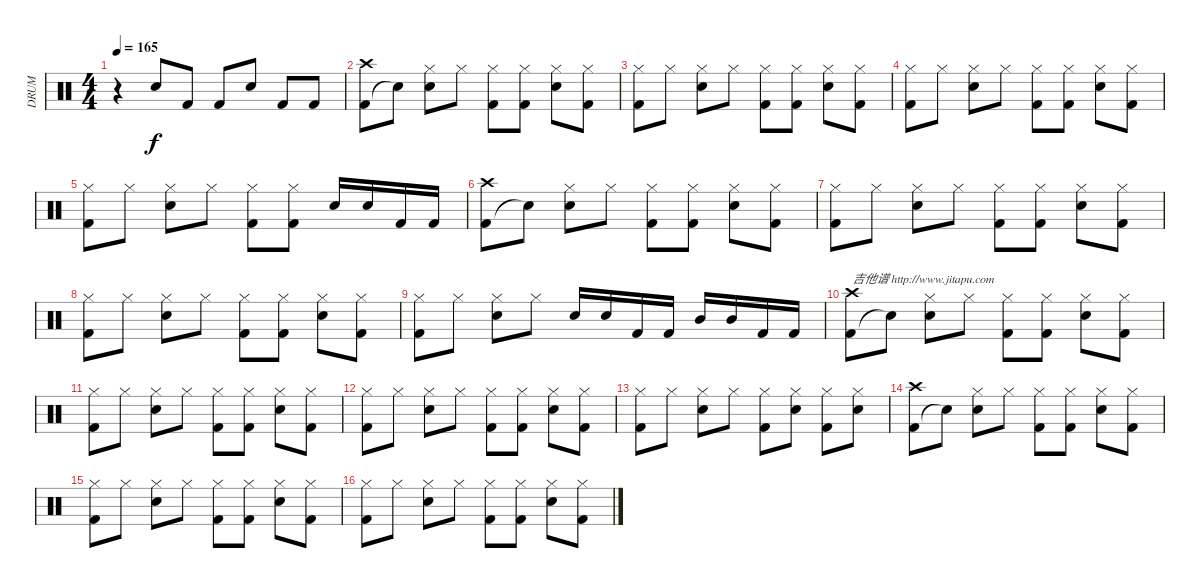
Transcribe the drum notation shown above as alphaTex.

\track ("DRUM" "DRUM") {instrument percussion}
\staff {score}
\articulation defaults
\ts (4 4)
\tempo 165
\clef neutral
\ks c
r.4{dy f} "Electric Snare (hit)".8 "Kick (hit) 2".8 "Kick (hit) 2".8 "Electric Snare (hit)".8 "Kick (hit) 2".8 "Kick (hit) 2".8 |
("Kick (hit) 2" "Crash high (hit)").8 "Snare (hit)"{t}.8 ("Electric Snare (hit)" "Hi-Hat (closed)").8 "Hi-Hat (closed)".8 ("Kick (hit) 2" "Hi-Hat (closed)").8 ("Kick (hit) 2" "Hi-Hat (closed)").8 ("Electric Snare (hit)" "Hi-Hat (closed)").8 ("Kick (hit) 2" "Hi-Hat (closed)").8 |
("Kick (hit) 2" "Hi-Hat (closed)").8 "Hi-Hat (closed)".8 ("Electric Snare (hit)" "Hi-Hat (closed)").8 "Hi-Hat (closed)".8 ("Kick (hit) 2" "Hi-Hat (closed)").8 ("Kick (hit) 2" "Hi-Hat (closed)").8 ("Electric Snare (hit)" "Hi-Hat (closed)").8 ("Kick (hit) 2" "Hi-Hat (closed)").8 |
("Kick (hit) 2" "Hi-Hat (closed)").8 "Hi-Hat (closed)".8 ("Electric Snare (hit)" "Hi-Hat (closed)").8 "Hi-Hat (closed)".8 ("Kick (hit) 2" "Hi-Hat (closed)").8 ("Kick (hit) 2" "Hi-Hat (closed)").8 ("Electric Snare (hit)" "Hi-Hat (closed)").8 ("Kick (hit) 2" "Hi-Hat (closed)").8 |
("Kick (hit) 2" "Hi-Hat (closed)").8 "Hi-Hat (closed)".8 ("Electric Snare (hit)" "Hi-Hat (closed)").8 "Hi-Hat (closed)".8 ("Kick (hit) 2" "Hi-Hat (closed)").8 ("Kick (hit) 2" "Hi-Hat (closed)").8 "Electric Snare (hit)".16 "Electric Snare (hit)".16 "Kick (hit) 2".16 "Kick (hit) 2".16 |
("Kick (hit) 2" "Crash high (hit)").8 "Snare (hit)"{t}.8 ("Electric Snare (hit)" "Hi-Hat (closed)").8 "Hi-Hat (closed)".8 ("Kick (hit) 2" "Hi-Hat (closed)").8 ("Kick (hit) 2" "Hi-Hat (closed)").8 ("Electric Snare (hit)" "Hi-Hat (closed)").8 ("Kick (hit) 2" "Hi-Hat (closed)").8 |
("Kick (hit) 2" "Hi-Hat (closed)").8 "Hi-Hat (closed)".8 ("Electric Snare (hit)" "Hi-Hat (closed)").8 "Hi-Hat (closed)".8 ("Kick (hit) 2" "Hi-Hat (closed)").8 ("Kick (hit) 2" "Hi-Hat (closed)").8 ("Electric Snare (hit)" "Hi-Hat (closed)").8 ("Kick (hit) 2" "Hi-Hat (closed)").8 |
("Kick (hit) 2" "Hi-Hat (closed)").8 "Hi-Hat (closed)".8 ("Electric Snare (hit)" "Hi-Hat (closed)").8 "Hi-Hat (closed)".8 ("Kick (hit) 2" "Hi-Hat (closed)").8 ("Kick (hit) 2" "Hi-Hat (closed)").8 ("Electric Snare (hit)" "Hi-Hat (closed)").8 ("Kick (hit) 2" "Hi-Hat (closed)").8 |
("Kick (hit) 2" "Hi-Hat (closed)").8 "Hi-Hat (closed)".8 ("Electric Snare (hit)" "Hi-Hat (closed)").8 "Hi-Hat (closed)".8 "Electric Snare (hit)".16 "Electric Snare (hit)".16 "Kick (hit) 2".16 "Kick (hit) 2".16 "Mid Tom (hit)".16 "Mid Tom (hit)".16 "Kick (hit) 2".16 "Kick (hit) 2".16 |
("Kick (hit) 2" "Crash high (hit)").8{txt "吉他谱 http://www.jitapu.com"} "Snare (hit)"{t}.8 ("Electric Snare (hit)" "Hi-Hat (closed)").8 "Hi-Hat (closed)".8 ("Kick (hit) 2" "Hi-Hat (closed)").8 ("Kick (hit) 2" "Hi-Hat (closed)").8 ("Electric Snare (hit)" "Hi-Hat (closed)").8 ("Kick (hit) 2" "Hi-Hat (closed)").8 |
("Kick (hit) 2" "Hi-Hat (closed)").8 "Hi-Hat (closed)".8 ("Electric Snare (hit)" "Hi-Hat (closed)").8 "Hi-Hat (closed)".8 ("Kick (hit) 2" "Hi-Hat (closed)").8 ("Kick (hit) 2" "Hi-Hat (closed)").8 ("Electric Snare (hit)" "Hi-Hat (closed)").8 ("Kick (hit) 2" "Hi-Hat (closed)").8 |
("Kick (hit) 2" "Hi-Hat (closed)").8 "Hi-Hat (closed)".8 ("Electric Snare (hit)" "Hi-Hat (closed)").8 "Hi-Hat (closed)".8 ("Kick (hit) 2" "Hi-Hat (closed)").8 ("Kick (hit) 2" "Hi-Hat (closed)").8 ("Electric Snare (hit)" "Hi-Hat (closed)").8 ("Kick (hit) 2" "Hi-Hat (closed)").8 |
("Kick (hit) 2" "Hi-Hat (closed)").8 "Hi-Hat (closed)".8 ("Electric Snare (hit)" "Hi-Hat (closed)").8 "Hi-Hat (closed)".8 ("Kick (hit) 2" "Hi-Hat (closed)").8 ("Electric Snare (hit)" "Hi-Hat (closed)").8 ("Kick (hit) 2" "Hi-Hat (closed)").8 ("Electric Snare (hit)" "Hi-Hat (closed)").8 |
("Kick (hit) 2" "Crash high (hit)").8 "Snare (hit)"{t}.8 ("Electric Snare (hit)" "Hi-Hat (closed)").8 "Hi-Hat (closed)".8 ("Kick (hit) 2" "Hi-Hat (closed)").8 ("Kick (hit) 2" "Hi-Hat (closed)").8 ("Electric Snare (hit)" "Hi-Hat (closed)").8 ("Kick (hit) 2" "Hi-Hat (closed)").8 |
("Kick (hit) 2" "Hi-Hat (closed)").8 "Hi-Hat (closed)".8 ("Electric Snare (hit)" "Hi-Hat (closed)").8 "Hi-Hat (closed)".8 ("Kick (hit) 2" "Hi-Hat (closed)").8 ("Kick (hit) 2" "Hi-Hat (closed)").8 ("Electric Snare (hit)" "Hi-Hat (closed)").8 ("Kick (hit) 2" "Hi-Hat (closed)").8 |
("Kick (hit) 2" "Hi-Hat (closed)").8 "Hi-Hat (closed)".8 ("Electric Snare (hit)" "Hi-Hat (closed)").8 "Hi-Hat (closed)".8 ("Kick (hit) 2" "Hi-Hat (closed)").8 ("Kick (hit) 2" "Hi-Hat (closed)").8 ("Electric Snare (hit)" "Hi-Hat (closed)").8 ("Kick (hit) 2" "Hi-Hat (closed)").8
